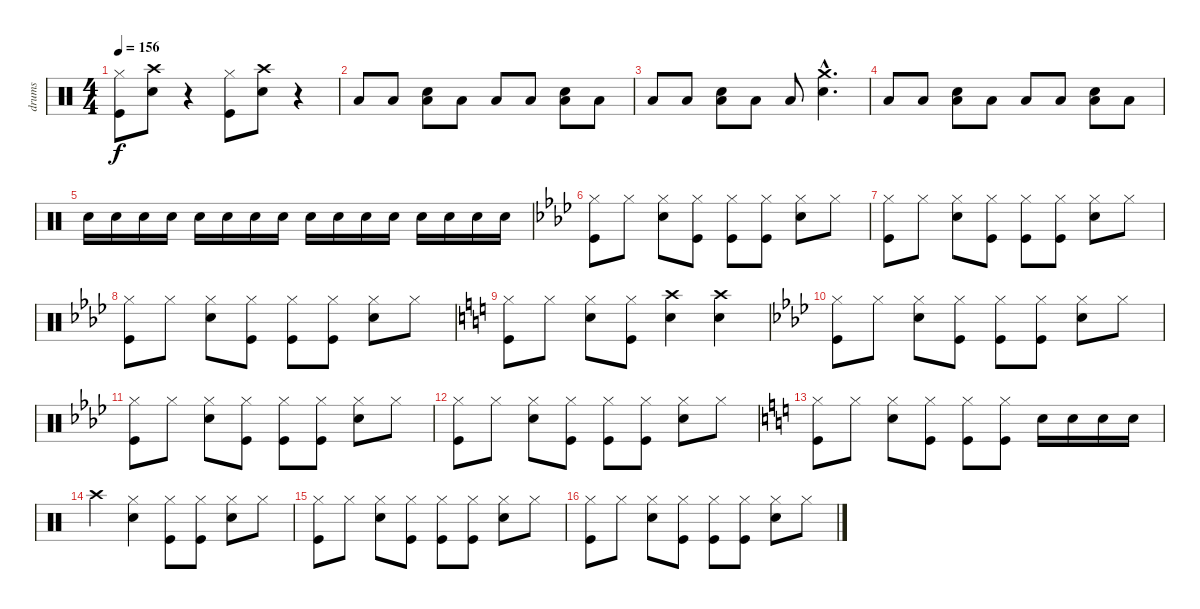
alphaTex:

\track ("drums" "drums") {instrument percussion}
\staff {score}
\articulation defaults
\ts (4 4)
\tempo 156
\clef neutral
\ks c
("Hi-Hat (closed)" "Kick (hit)").8{dy f} ("Crash high (hit)" "Snare (hit) 2").8 r.4 ("Hi-Hat (closed)" "Kick (hit)").8 ("Crash high (hit)" "Snare (hit) 2").8 r.4 |
"Low Tom (hit)".8 "Low Tom (hit)".8 ("Snare (hit) 2" "Low Tom (hit)").8 "Low Tom (hit)".8 "Low Tom (hit)".8 "Low Tom (hit)".8 ("Snare (hit) 2" "Low Tom (hit)").8 "Low Tom (hit)".8 |
"Low Tom (hit)".8 "Low Tom (hit)".8 ("Snare (hit) 2" "Low Tom (hit)").8 "Low Tom (hit)".8 "Low Tom (hit)".8 ("Crash medium (hit)"{hac} "Snare (hit) 2"{hac}).4{d} |
"Low Tom (hit)".8 "Low Tom (hit)".8 ("Snare (hit) 2" "Low Tom (hit)").8 "Low Tom (hit)".8 "Low Tom (hit)".8 "Low Tom (hit)".8 ("Snare (hit) 2" "Low Tom (hit)").8 "Low Tom (hit)".8 |
"Snare (hit) 2".16 "Snare (hit) 2".16 "Snare (hit) 2".16 "Snare (hit) 2".16 "Snare (hit) 2".16 "Snare (hit) 2".16 "Snare (hit) 2".16 "Snare (hit) 2".16 "Snare (hit) 2".16 "Snare (hit) 2".16 "Snare (hit) 2".16 "Snare (hit) 2".16 "Snare (hit) 2".16 "Snare (hit) 2".16 "Snare (hit) 2".16 "Snare (hit) 2".16 |
\ks ab
("Hi-Hat (closed)" "Kick (hit)").8 "Hi-Hat (closed)".8 ("Hi-Hat (closed)" "Snare (hit) 2").8 ("Hi-Hat (closed)" "Kick (hit)").8 ("Hi-Hat (closed)" "Kick (hit)").8 ("Hi-Hat (closed)" "Kick (hit)").8 ("Hi-Hat (closed)" "Snare (hit) 2").8 "Hi-Hat (closed)".8 |
("Hi-Hat (closed)" "Kick (hit)").8 "Hi-Hat (closed)".8 ("Hi-Hat (closed)" "Snare (hit) 2").8 ("Hi-Hat (closed)" "Kick (hit)").8 ("Hi-Hat (closed)" "Kick (hit)").8 ("Hi-Hat (closed)" "Kick (hit)").8 ("Hi-Hat (closed)" "Snare (hit) 2").8 "Hi-Hat (closed)".8 |
("Hi-Hat (closed)" "Kick (hit)").8 "Hi-Hat (closed)".8 ("Hi-Hat (closed)" "Snare (hit) 2").8 ("Hi-Hat (closed)" "Kick (hit)").8 ("Hi-Hat (closed)" "Kick (hit)").8 ("Hi-Hat (closed)" "Kick (hit)").8 ("Hi-Hat (closed)" "Snare (hit) 2").8 "Hi-Hat (closed)".8 |
\ks c
("Hi-Hat (closed)" "Kick (hit)").8 "Hi-Hat (closed)".8 ("Hi-Hat (closed)" "Snare (hit) 2").8 ("Hi-Hat (closed)" "Kick (hit)").8 ("Snare (hit) 2" "Crash high (hit)").4 ("Snare (hit) 2" "Crash high (hit)").4 |
\ks ab
("Hi-Hat (closed)" "Kick (hit)").8 "Hi-Hat (closed)".8 ("Hi-Hat (closed)" "Snare (hit) 2").8 ("Hi-Hat (closed)" "Kick (hit)").8 ("Hi-Hat (closed)" "Kick (hit)").8 ("Hi-Hat (closed)" "Kick (hit)").8 ("Hi-Hat (closed)" "Snare (hit) 2").8 "Hi-Hat (closed)".8 |
("Hi-Hat (closed)" "Kick (hit)").8 "Hi-Hat (closed)".8 ("Hi-Hat (closed)" "Snare (hit) 2").8 ("Hi-Hat (closed)" "Kick (hit)").8 ("Hi-Hat (closed)" "Kick (hit)").8 ("Hi-Hat (closed)" "Kick (hit)").8 ("Hi-Hat (closed)" "Snare (hit) 2").8 "Hi-Hat (closed)".8 |
("Hi-Hat (closed)" "Kick (hit)").8 "Hi-Hat (closed)".8 ("Hi-Hat (closed)" "Snare (hit) 2").8 ("Hi-Hat (closed)" "Kick (hit)").8 ("Hi-Hat (closed)" "Kick (hit)").8 ("Hi-Hat (closed)" "Kick (hit)").8 ("Hi-Hat (closed)" "Snare (hit) 2").8 "Hi-Hat (closed)".8 |
\ks c
("Hi-Hat (closed)" "Kick (hit)").8 "Hi-Hat (closed)".8 ("Hi-Hat (closed)" "Snare (hit) 2").8 ("Hi-Hat (closed)" "Kick (hit)").8 ("Hi-Hat (closed)" "Kick (hit)").8 ("Hi-Hat (closed)" "Kick (hit)").8 "Snare (hit) 2".16 "Snare (hit) 2".16 "Snare (hit) 2".16 "Snare (hit) 2".16 |
"Crash high (hit)".4 ("Hi-Hat (closed)" "Snare (hit) 2").4 ("Hi-Hat (closed)" "Kick (hit)").8 ("Hi-Hat (closed)" "Kick (hit)").8 ("Hi-Hat (closed)" "Snare (hit) 2").8 "Hi-Hat (closed)".8 |
("Hi-Hat (closed)" "Kick (hit)").8 "Hi-Hat (closed)".8 ("Hi-Hat (closed)" "Snare (hit) 2").8 ("Hi-Hat (closed)" "Kick (hit)").8 ("Hi-Hat (closed)" "Kick (hit)").8 ("Hi-Hat (closed)" "Kick (hit)").8 ("Hi-Hat (closed)" "Snare (hit) 2").8 "Hi-Hat (closed)".8 |
("Hi-Hat (closed)" "Kick (hit)").8 "Hi-Hat (closed)".8 ("Hi-Hat (closed)" "Snare (hit) 2").8 ("Hi-Hat (closed)" "Kick (hit)").8 ("Hi-Hat (closed)" "Kick (hit)").8 ("Hi-Hat (closed)" "Kick (hit)").8 ("Hi-Hat (closed)" "Snare (hit) 2").8 "Hi-Hat (closed)".8
